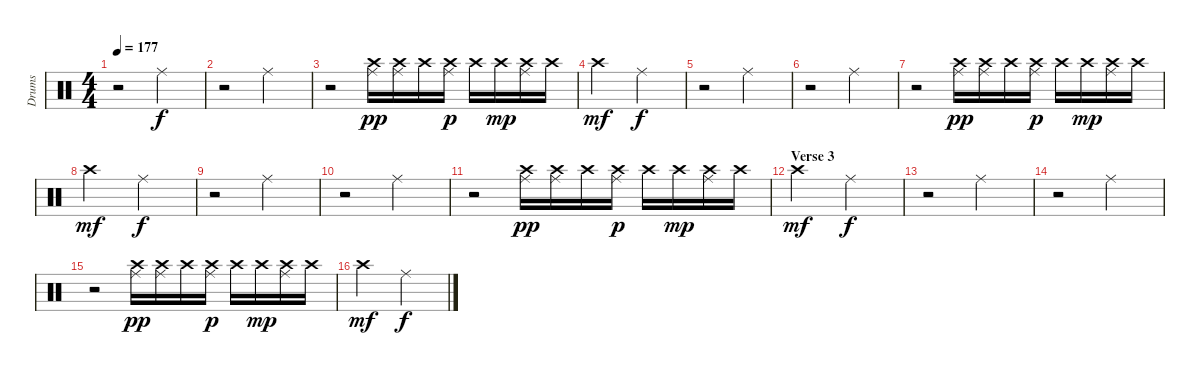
\track ("Drums" "Drums") {instrument percussion}
\staff {score}
\articulation defaults
\ts (4 4)
\tempo 177
\clef neutral
\ks c
r.2{dy f} "Ride (middle)".2 |
r.2 "Ride (middle)".2 |
r.2 ("Ride (middle)" "Crash high (hit)").16{dy pp} ("Ride (middle)" "Crash high (hit)").16 "Crash high (hit)".16 ("Ride (middle)" "Crash high (hit)").16{dy p} "Crash high (hit)".16 "Crash high (hit)".16{dy mp} ("Ride (middle)" "Crash high (hit)").16 "Crash high (hit)".16 |
"Crash high (hit)".2{dy mf} "Ride (middle)".2{dy f} |
r.2 "Ride (middle)".2 |
r.2 "Ride (middle)".2 |
r.2 ("Ride (middle)" "Crash high (hit)").16{dy pp} ("Ride (middle)" "Crash high (hit)").16 "Crash high (hit)".16 ("Ride (middle)" "Crash high (hit)").16{dy p} "Crash high (hit)".16 "Crash high (hit)".16{dy mp} ("Ride (middle)" "Crash high (hit)").16 "Crash high (hit)".16 |
"Crash high (hit)".2{dy mf} "Ride (middle)".2{dy f} |
r.2 "Ride (middle)".2 |
r.2 "Ride (middle)".2 |
r.2 ("Ride (middle)" "Crash high (hit)").16{dy pp} ("Ride (middle)" "Crash high (hit)").16 "Crash high (hit)".16 ("Ride (middle)" "Crash high (hit)").16{dy p} "Crash high (hit)".16 "Crash high (hit)".16{dy mp} ("Ride (middle)" "Crash high (hit)").16 "Crash high (hit)".16 |
\section ("" "Verse 3")
"Crash high (hit)".2{dy mf} "Ride (middle)".2{dy f} |
r.2 "Ride (middle)".2 |
r.2 "Ride (middle)".2 |
r.2 ("Ride (middle)" "Crash high (hit)").16{dy pp} ("Ride (middle)" "Crash high (hit)").16 "Crash high (hit)".16 ("Ride (middle)" "Crash high (hit)").16{dy p} "Crash high (hit)".16 "Crash high (hit)".16{dy mp} ("Ride (middle)" "Crash high (hit)").16 "Crash high (hit)".16 |
"Crash high (hit)".2{dy mf} "Ride (middle)".2{dy f}
